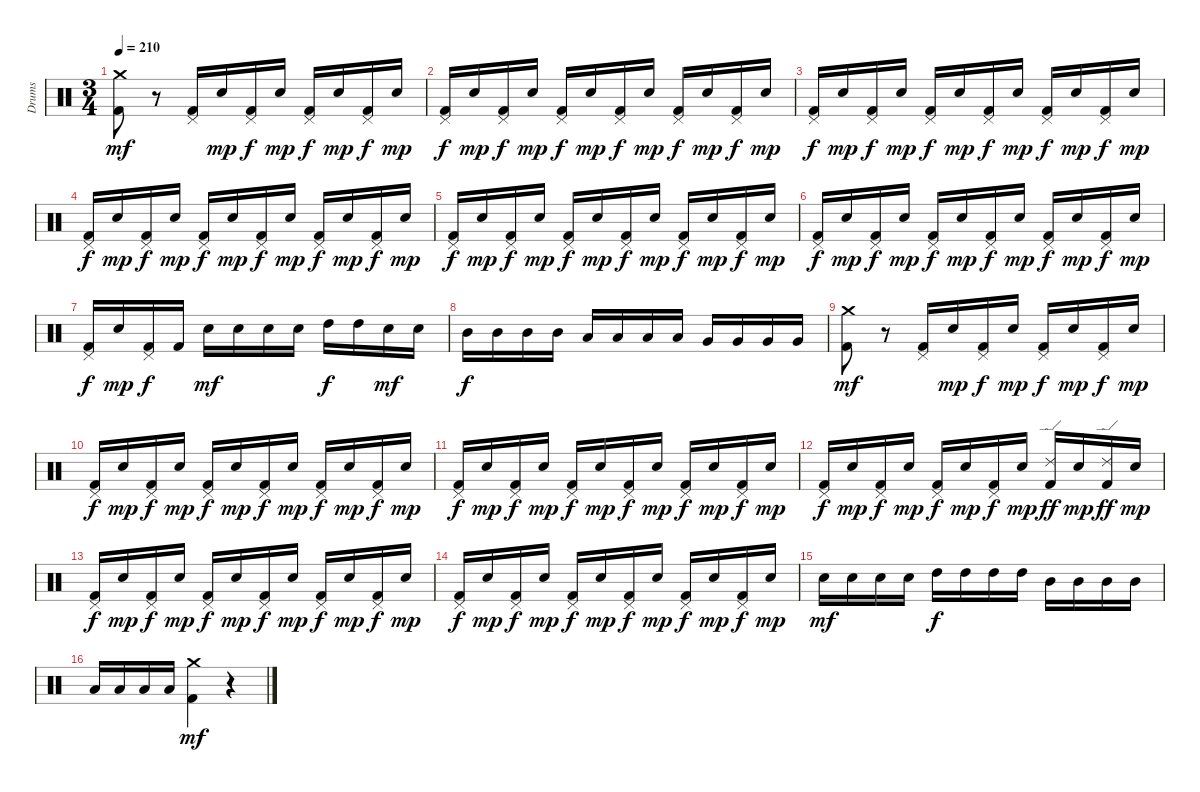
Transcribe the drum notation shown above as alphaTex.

\track ("Drums" "Drums") {instrument percussion}
\staff {score}
\articulation defaults
\ts (3 4)
\tempo 210
\clef neutral
\ks c
("Crash medium (hit)" "Kick (hit) 2").8{dy mf} r.8 ("Pedal Hi-Hat (hit)" "Kick (hit) 2").16 "Electric Snare (hit)".16{dy mp} ("Pedal Hi-Hat (hit)" "Kick (hit) 2").16{dy f} "Electric Snare (hit)".16{dy mp} ("Pedal Hi-Hat (hit)" "Kick (hit) 2").16{dy f} "Electric Snare (hit)".16{dy mp} ("Pedal Hi-Hat (hit)" "Kick (hit) 2").16{dy f} "Electric Snare (hit)".16{dy mp} |
("Pedal Hi-Hat (hit)" "Kick (hit) 2").16{dy f} "Electric Snare (hit)".16{dy mp} ("Pedal Hi-Hat (hit)" "Kick (hit) 2").16{dy f} "Electric Snare (hit)".16{dy mp} ("Pedal Hi-Hat (hit)" "Kick (hit) 2").16{dy f} "Electric Snare (hit)".16{dy mp} ("Pedal Hi-Hat (hit)" "Kick (hit) 2").16{dy f} "Electric Snare (hit)".16{dy mp} ("Pedal Hi-Hat (hit)" "Kick (hit) 2").16{dy f} "Electric Snare (hit)".16{dy mp} ("Pedal Hi-Hat (hit)" "Kick (hit) 2").16{dy f} "Electric Snare (hit)".16{dy mp} |
("Pedal Hi-Hat (hit)" "Kick (hit) 2").16{dy f} "Electric Snare (hit)".16{dy mp} ("Pedal Hi-Hat (hit)" "Kick (hit) 2").16{dy f} "Electric Snare (hit)".16{dy mp} ("Pedal Hi-Hat (hit)" "Kick (hit) 2").16{dy f} "Electric Snare (hit)".16{dy mp} ("Pedal Hi-Hat (hit)" "Kick (hit) 2").16{dy f} "Electric Snare (hit)".16{dy mp} ("Pedal Hi-Hat (hit)" "Kick (hit) 2").16{dy f} "Electric Snare (hit)".16{dy mp} ("Pedal Hi-Hat (hit)" "Kick (hit) 2").16{dy f} "Electric Snare (hit)".16{dy mp} |
("Pedal Hi-Hat (hit)" "Kick (hit) 2").16{dy f} "Electric Snare (hit)".16{dy mp} ("Pedal Hi-Hat (hit)" "Kick (hit) 2").16{dy f} "Electric Snare (hit)".16{dy mp} ("Pedal Hi-Hat (hit)" "Kick (hit) 2").16{dy f} "Electric Snare (hit)".16{dy mp} ("Pedal Hi-Hat (hit)" "Kick (hit) 2").16{dy f} "Electric Snare (hit)".16{dy mp} ("Pedal Hi-Hat (hit)" "Kick (hit) 2").16{dy f} "Electric Snare (hit)".16{dy mp} ("Pedal Hi-Hat (hit)" "Kick (hit) 2").16{dy f} "Electric Snare (hit)".16{dy mp} |
("Pedal Hi-Hat (hit)" "Kick (hit) 2").16{dy f} "Electric Snare (hit)".16{dy mp} ("Pedal Hi-Hat (hit)" "Kick (hit) 2").16{dy f} "Electric Snare (hit)".16{dy mp} ("Pedal Hi-Hat (hit)" "Kick (hit) 2").16{dy f} "Electric Snare (hit)".16{dy mp} ("Pedal Hi-Hat (hit)" "Kick (hit) 2").16{dy f} "Electric Snare (hit)".16{dy mp} ("Pedal Hi-Hat (hit)" "Kick (hit) 2").16{dy f} "Electric Snare (hit)".16{dy mp} ("Pedal Hi-Hat (hit)" "Kick (hit) 2").16{dy f} "Electric Snare (hit)".16{dy mp} |
("Pedal Hi-Hat (hit)" "Kick (hit) 2").16{dy f} "Electric Snare (hit)".16{dy mp} ("Pedal Hi-Hat (hit)" "Kick (hit) 2").16{dy f} "Electric Snare (hit)".16{dy mp} ("Pedal Hi-Hat (hit)" "Kick (hit) 2").16{dy f} "Electric Snare (hit)".16{dy mp} ("Pedal Hi-Hat (hit)" "Kick (hit) 2").16{dy f} "Electric Snare (hit)".16{dy mp} ("Pedal Hi-Hat (hit)" "Kick (hit) 2").16{dy f} "Electric Snare (hit)".16{dy mp} ("Pedal Hi-Hat (hit)" "Kick (hit) 2").16{dy f} "Electric Snare (hit)".16{dy mp} |
("Pedal Hi-Hat (hit)" "Kick (hit) 2").16{dy f} "Electric Snare (hit)".16{dy mp} ("Pedal Hi-Hat (hit)" "Kick (hit) 2").16{dy f} "Kick (hit) 2".16 "Electric Snare (hit)".16{dy mf} "Electric Snare (hit)".16 "Electric Snare (hit)".16 "Electric Snare (hit)".16 "High Tom (hit)".16{dy f} "High Tom (hit)".16 "Electric Snare (hit)".16{dy mf} "Electric Snare (hit)".16 |
"Mid Tom (hit)".16{dy f} "Mid Tom (hit)".16 "Mid Tom (hit)".16 "Mid Tom (hit)".16 "Low Tom (hit)".16 "Low Tom (hit)".16 "Low Tom (hit)".16 "Low Tom (hit)".16 "Very Low Tom (hit)".16 "Very Low Tom (hit)".16 "Very Low Tom (hit)".16 "Very Low Tom (hit)".16 |
("Crash medium (hit)" "Kick (hit) 2").8{dy mf} r.8 ("Pedal Hi-Hat (hit)" "Kick (hit) 2").16 "Electric Snare (hit)".16{dy mp} ("Pedal Hi-Hat (hit)" "Kick (hit) 2").16{dy f} "Electric Snare (hit)".16{dy mp} ("Pedal Hi-Hat (hit)" "Kick (hit) 2").16{dy f} "Electric Snare (hit)".16{dy mp} ("Pedal Hi-Hat (hit)" "Kick (hit) 2").16{dy f} "Electric Snare (hit)".16{dy mp} |
("Pedal Hi-Hat (hit)" "Kick (hit) 2").16{dy f} "Electric Snare (hit)".16{dy mp} ("Pedal Hi-Hat (hit)" "Kick (hit) 2").16{dy f} "Electric Snare (hit)".16{dy mp} ("Pedal Hi-Hat (hit)" "Kick (hit) 2").16{dy f} "Electric Snare (hit)".16{dy mp} ("Pedal Hi-Hat (hit)" "Kick (hit) 2").16{dy f} "Electric Snare (hit)".16{dy mp} ("Pedal Hi-Hat (hit)" "Kick (hit) 2").16{dy f} "Electric Snare (hit)".16{dy mp} ("Pedal Hi-Hat (hit)" "Kick (hit) 2").16{dy f} "Electric Snare (hit)".16{dy mp} |
("Pedal Hi-Hat (hit)" "Kick (hit) 2").16{dy f} "Electric Snare (hit)".16{dy mp} ("Pedal Hi-Hat (hit)" "Kick (hit) 2").16{dy f} "Electric Snare (hit)".16{dy mp} ("Pedal Hi-Hat (hit)" "Kick (hit) 2").16{dy f} "Electric Snare (hit)".16{dy mp} ("Pedal Hi-Hat (hit)" "Kick (hit) 2").16{dy f} "Electric Snare (hit)".16{dy mp} ("Pedal Hi-Hat (hit)" "Kick (hit) 2").16{dy f} "Electric Snare (hit)".16{dy mp} ("Pedal Hi-Hat (hit)" "Kick (hit) 2").16{dy f} "Electric Snare (hit)".16{dy mp} |
("Pedal Hi-Hat (hit)" "Kick (hit) 2").16{dy f} "Electric Snare (hit)".16{dy mp} ("Pedal Hi-Hat (hit)" "Kick (hit) 2").16{dy f} "Electric Snare (hit)".16{dy mp} ("Pedal Hi-Hat (hit)" "Kick (hit) 2").16{dy f} "Electric Snare (hit)".16{dy mp} ("Pedal Hi-Hat (hit)" "Kick (hit) 2").16{dy f} "Electric Snare (hit)".16{dy mp} ("Ride (edge) 2" "Kick (hit) 2").16{dy ff} "Electric Snare (hit)".16{dy mp} ("Ride (edge) 2" "Kick (hit) 2").16{dy ff} "Electric Snare (hit)".16{dy mp} |
("Pedal Hi-Hat (hit)" "Kick (hit) 2").16{dy f} "Electric Snare (hit)".16{dy mp} ("Pedal Hi-Hat (hit)" "Kick (hit) 2").16{dy f} "Electric Snare (hit)".16{dy mp} ("Pedal Hi-Hat (hit)" "Kick (hit) 2").16{dy f} "Electric Snare (hit)".16{dy mp} ("Pedal Hi-Hat (hit)" "Kick (hit) 2").16{dy f} "Electric Snare (hit)".16{dy mp} ("Pedal Hi-Hat (hit)" "Kick (hit) 2").16{dy f} "Electric Snare (hit)".16{dy mp} ("Pedal Hi-Hat (hit)" "Kick (hit) 2").16{dy f} "Electric Snare (hit)".16{dy mp} |
("Pedal Hi-Hat (hit)" "Kick (hit) 2").16{dy f} "Electric Snare (hit)".16{dy mp} ("Pedal Hi-Hat (hit)" "Kick (hit) 2").16{dy f} "Electric Snare (hit)".16{dy mp} ("Pedal Hi-Hat (hit)" "Kick (hit) 2").16{dy f} "Electric Snare (hit)".16{dy mp} ("Pedal Hi-Hat (hit)" "Kick (hit) 2").16{dy f} "Electric Snare (hit)".16{dy mp} ("Pedal Hi-Hat (hit)" "Kick (hit) 2").16{dy f} "Electric Snare (hit)".16{dy mp} ("Pedal Hi-Hat (hit)" "Kick (hit) 2").16{dy f} "Electric Snare (hit)".16{dy mp} |
"Electric Snare (hit)".16{dy mf} "Electric Snare (hit)".16 "Electric Snare (hit)".16 "Electric Snare (hit)".16 "High Tom (hit)".16{dy f} "High Tom (hit)".16 "High Tom (hit)".16 "High Tom (hit)".16 "Mid Tom (hit)".16 "Mid Tom (hit)".16 "Mid Tom (hit)".16 "Mid Tom (hit)".16 |
"Low Tom (hit)".16 "Low Tom (hit)".16 "Low Tom (hit)".16 "Low Tom (hit)".16 ("Crash medium (hit)" "Kick (hit) 2").4{dy mf} r.4
